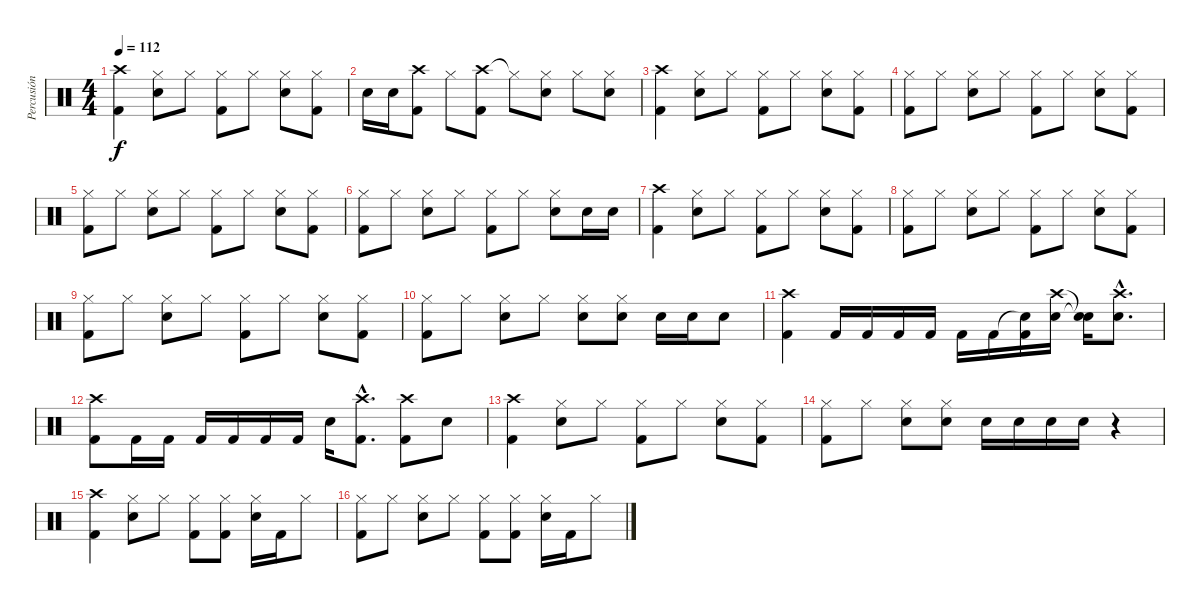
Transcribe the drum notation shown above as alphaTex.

\track ("Percusión" "Percusión") {instrument percussion}
\staff {score}
\articulation defaults
\ts (4 4)
\tempo 112
\clef neutral
\ks c
("Crash high (hit)" "Kick (hit) 2").4{dy f} ("Hi-Hat (closed)" "Electric Snare (hit)").8 "Hi-Hat (closed)".8 ("Hi-Hat (closed)" "Kick (hit) 2").8 "Hi-Hat (closed)".8 ("Hi-Hat (closed)" "Electric Snare (hit)").8 ("Hi-Hat (closed)" "Kick (hit) 2").8 |
"Electric Snare (hit)".16 "Electric Snare (hit)".16 ("Crash high (hit)" "Kick (hit) 2").8 "Hi-Hat (closed)".8 ("Crash high (hit)" "Kick (hit) 2").8 "Hi-Hat (closed)"{t}.8 ("Hi-Hat (closed)" "Electric Snare (hit)").8 "Hi-Hat (closed)".8 ("Hi-Hat (closed)" "Electric Snare (hit)").8 |
("Crash high (hit)" "Kick (hit) 2").4 ("Hi-Hat (closed)" "Electric Snare (hit)").8 "Hi-Hat (closed)".8 ("Hi-Hat (closed)" "Kick (hit) 2").8 "Hi-Hat (closed)".8 ("Hi-Hat (closed)" "Electric Snare (hit)").8 ("Hi-Hat (closed)" "Kick (hit) 2").8 |
("Hi-Hat (closed)" "Kick (hit) 2").8 "Hi-Hat (closed)".8 ("Hi-Hat (closed)" "Electric Snare (hit)").8 "Hi-Hat (closed)".8 ("Hi-Hat (closed)" "Kick (hit) 2").8 "Hi-Hat (closed)".8 ("Hi-Hat (closed)" "Electric Snare (hit)").8 ("Hi-Hat (closed)" "Kick (hit) 2").8 |
("Hi-Hat (closed)" "Kick (hit) 2").8 "Hi-Hat (closed)".8 ("Hi-Hat (closed)" "Electric Snare (hit)").8 "Hi-Hat (closed)".8 ("Hi-Hat (closed)" "Kick (hit) 2").8 "Hi-Hat (closed)".8 ("Hi-Hat (closed)" "Electric Snare (hit)").8 ("Hi-Hat (closed)" "Kick (hit) 2").8 |
("Hi-Hat (closed)" "Kick (hit) 2").8 "Hi-Hat (closed)".8 ("Hi-Hat (closed)" "Electric Snare (hit)").8 "Hi-Hat (closed)".8 ("Hi-Hat (closed)" "Kick (hit) 2").8 "Hi-Hat (closed)".8 ("Hi-Hat (closed)" "Electric Snare (hit)").8 "Electric Snare (hit)".16 "Electric Snare (hit)".16 |
("Crash high (hit)" "Kick (hit) 2").4 ("Hi-Hat (closed)" "Electric Snare (hit)").8 "Hi-Hat (closed)".8 ("Hi-Hat (closed)" "Kick (hit) 2").8 "Hi-Hat (closed)".8 ("Hi-Hat (closed)" "Electric Snare (hit)").8 ("Hi-Hat (closed)" "Kick (hit) 2").8 |
("Hi-Hat (closed)" "Kick (hit) 2").8 "Hi-Hat (closed)".8 ("Hi-Hat (closed)" "Electric Snare (hit)").8 "Hi-Hat (closed)".8 ("Hi-Hat (closed)" "Kick (hit) 2").8 "Hi-Hat (closed)".8 ("Hi-Hat (closed)" "Electric Snare (hit)").8 ("Hi-Hat (closed)" "Kick (hit) 2").8 |
("Hi-Hat (closed)" "Kick (hit) 2").8 "Hi-Hat (closed)".8 ("Hi-Hat (closed)" "Electric Snare (hit)").8 "Hi-Hat (closed)".8 ("Hi-Hat (closed)" "Kick (hit) 2").8 "Hi-Hat (closed)".8 ("Hi-Hat (closed)" "Electric Snare (hit)").8 ("Hi-Hat (closed)" "Kick (hit) 2").8 |
("Hi-Hat (closed)" "Kick (hit) 2").8 "Hi-Hat (closed)".8 ("Hi-Hat (closed)" "Electric Snare (hit)").8 "Hi-Hat (closed)".8 ("Hi-Hat (closed)" "Electric Snare (hit)").8 ("Hi-Hat (closed)" "Electric Snare (hit)").8 "Electric Snare (hit)".16 "Electric Snare (hit)".16 "Electric Snare (hit)".8 |
("Crash high (hit)" "Kick (hit) 2").4 "Kick (hit) 2".16 "Kick (hit) 2".16 "Kick (hit) 2".16 "Kick (hit) 2".16 "Kick (hit) 2".16 "Kick (hit) 2".16 ("Snare (hit)"{t} "Kick (hit) 2").16 ("Crash high (hit)" "Electric Snare (hit)").16 ("Snare (hit)"{t} "Snare (hit)"{t}).16 ("Crash high (hit)"{hac} "Electric Snare (hit)"{hac}).8{d} |
("Crash high (hit)" "Kick (hit) 2").8 "Kick (hit) 2".16 "Kick (hit) 2".16 "Kick (hit) 2".16 "Kick (hit) 2".16 "Kick (hit) 2".16 "Kick (hit) 2".16 "Electric Snare (hit)".16 ("Crash high (hit)"{hac} "Kick (hit) 2"{hac}).8{d} ("Crash high (hit)" "Kick (hit) 2").8 "Electric Snare (hit)".8 |
("Crash high (hit)" "Kick (hit) 2").4 ("Hi-Hat (closed)" "Electric Snare (hit)").8 "Hi-Hat (closed)".8 ("Hi-Hat (closed)" "Kick (hit) 2").8 "Hi-Hat (closed)".8 ("Hi-Hat (closed)" "Electric Snare (hit)").8 ("Hi-Hat (closed)" "Kick (hit) 2").8 |
("Hi-Hat (closed)" "Kick (hit) 2").8 "Hi-Hat (closed)".8 ("Hi-Hat (closed)" "Electric Snare (hit)").8 ("Hi-Hat (closed)" "Electric Snare (hit)").8 "Electric Snare (hit)".16 "Electric Snare (hit)".16 "Electric Snare (hit)".16 "Electric Snare (hit)".16 r.4 |
("Crash high (hit)" "Kick (hit) 2").4 ("Hi-Hat (closed)" "Electric Snare (hit)").8 "Hi-Hat (closed)".8 ("Hi-Hat (closed)" "Kick (hit) 2").8 ("Hi-Hat (closed)" "Kick (hit) 2").8 ("Hi-Hat (closed)" "Electric Snare (hit)").16 "Kick (hit) 2".16 "Hi-Hat (closed)".8 |
("Hi-Hat (closed)" "Kick (hit) 2").8 "Hi-Hat (closed)".8 ("Hi-Hat (closed)" "Electric Snare (hit)").8 "Hi-Hat (closed)".8 ("Hi-Hat (closed)" "Kick (hit) 2").8 ("Hi-Hat (closed)" "Kick (hit) 2").8 ("Hi-Hat (closed)" "Electric Snare (hit)").16 "Kick (hit) 2".16 "Hi-Hat (closed)".8
